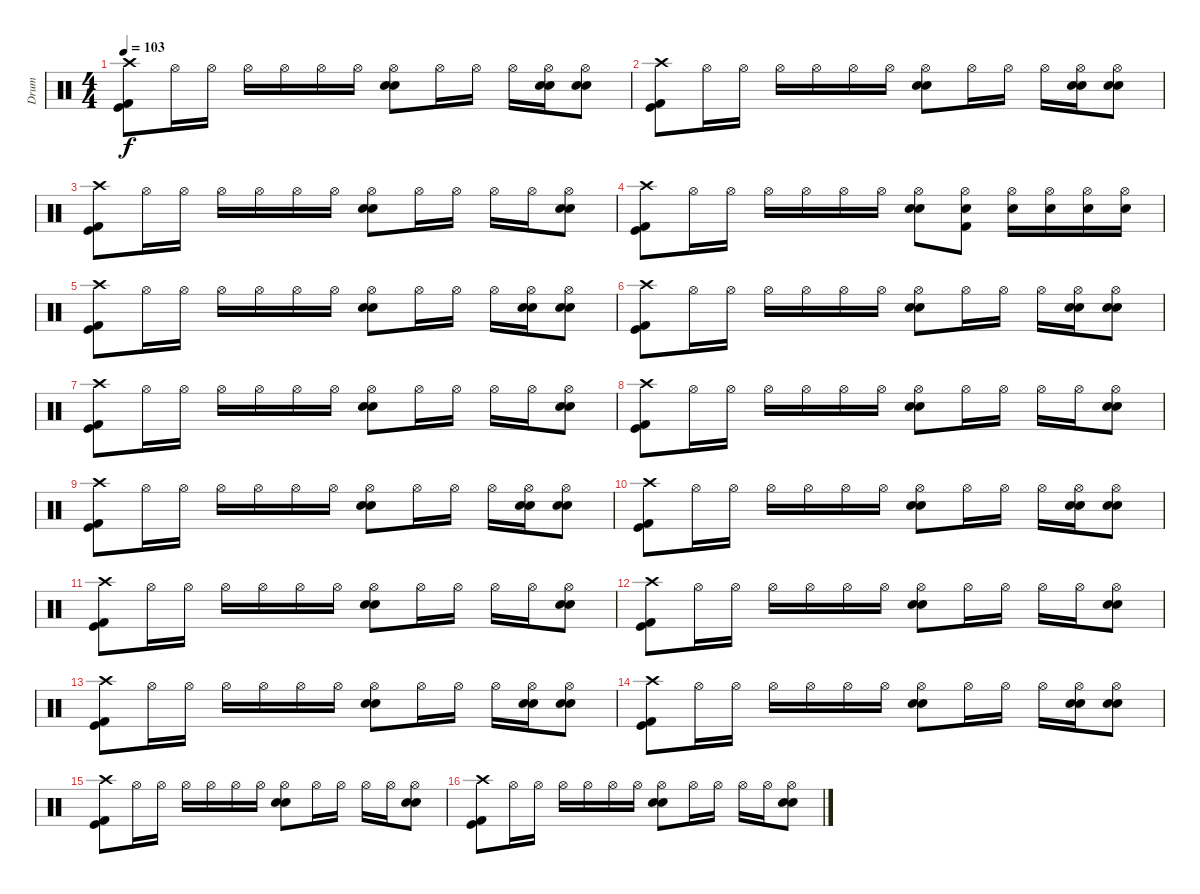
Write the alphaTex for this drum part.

\track ("Drum" "Drum") {instrument percussion}
\staff {score}
\articulation defaults
\ts (4 4)
\tempo 103
\clef neutral
\ks c
("Kick (hit)" "Kick (hit) 2" "Crash high (hit)").8{dy f} "Hi-Hat (open)".16 "Hi-Hat (open)".16 "Hi-Hat (open)".16 "Hi-Hat (open)".16 "Hi-Hat (open)".16 "Hi-Hat (open)".16 ("Hi-Hat (open)" "Electric Snare (hit)" "Snare (hit) 2").8 "Hi-Hat (open)".16 "Hi-Hat (open)".16 "Hi-Hat (open)".16 ("Hi-Hat (open)" "Electric Snare (hit)" "Snare (hit) 2").16 ("Hi-Hat (open)" "Electric Snare (hit)" "Snare (hit) 2").8 |
("Kick (hit)" "Kick (hit) 2" "Crash high (hit)").8 "Hi-Hat (open)".16 "Hi-Hat (open)".16 "Hi-Hat (open)".16 "Hi-Hat (open)".16 "Hi-Hat (open)".16 "Hi-Hat (open)".16 ("Hi-Hat (open)" "Electric Snare (hit)" "Snare (hit) 2").8 "Hi-Hat (open)".16 "Hi-Hat (open)".16 "Hi-Hat (open)".16 ("Hi-Hat (open)" "Electric Snare (hit)" "Snare (hit) 2").16 ("Hi-Hat (open)" "Electric Snare (hit)" "Snare (hit) 2").8 |
("Kick (hit)" "Kick (hit) 2" "Crash high (hit)").8 "Hi-Hat (open)".16 "Hi-Hat (open)".16 "Hi-Hat (open)".16 "Hi-Hat (open)".16 "Hi-Hat (open)".16 "Hi-Hat (open)".16 ("Hi-Hat (open)" "Electric Snare (hit)" "Snare (hit) 2").8 "Hi-Hat (open)".16 "Hi-Hat (open)".16 "Hi-Hat (open)".16 "Hi-Hat (open)".16 ("Hi-Hat (open)" "Electric Snare (hit)" "Snare (hit) 2").8 |
("Kick (hit)" "Kick (hit) 2" "Crash high (hit)").8 "Hi-Hat (open)".16 "Hi-Hat (open)".16 "Hi-Hat (open)".16 "Hi-Hat (open)".16 "Hi-Hat (open)".16 "Hi-Hat (open)".16 ("Hi-Hat (open)" "Electric Snare (hit)" "Snare (hit) 2").8 ("Hi-Hat (open)" "Kick (hit) 2" "Snare (hit) 2").8 ("Hi-Hat (open)" "Snare (hit) 2").16 ("Hi-Hat (open)" "Snare (hit) 2").16 ("Hi-Hat (open)" "Snare (hit) 2").16 ("Hi-Hat (open)" "Snare (hit) 2").16 |
("Kick (hit)" "Kick (hit) 2" "Crash high (hit)").8 "Hi-Hat (open)".16 "Hi-Hat (open)".16 "Hi-Hat (open)".16 "Hi-Hat (open)".16 "Hi-Hat (open)".16 "Hi-Hat (open)".16 ("Hi-Hat (open)" "Electric Snare (hit)" "Snare (hit) 2").8 "Hi-Hat (open)".16 "Hi-Hat (open)".16 "Hi-Hat (open)".16 ("Hi-Hat (open)" "Electric Snare (hit)" "Snare (hit) 2").16 ("Hi-Hat (open)" "Electric Snare (hit)" "Snare (hit) 2").8 |
("Kick (hit)" "Kick (hit) 2" "Crash high (hit)").8 "Hi-Hat (open)".16 "Hi-Hat (open)".16 "Hi-Hat (open)".16 "Hi-Hat (open)".16 "Hi-Hat (open)".16 "Hi-Hat (open)".16 ("Hi-Hat (open)" "Electric Snare (hit)" "Snare (hit) 2").8 "Hi-Hat (open)".16 "Hi-Hat (open)".16 "Hi-Hat (open)".16 ("Hi-Hat (open)" "Electric Snare (hit)" "Snare (hit) 2").16 ("Hi-Hat (open)" "Electric Snare (hit)" "Snare (hit) 2").8 |
("Kick (hit)" "Kick (hit) 2" "Crash high (hit)").8 "Hi-Hat (open)".16 "Hi-Hat (open)".16 "Hi-Hat (open)".16 "Hi-Hat (open)".16 "Hi-Hat (open)".16 "Hi-Hat (open)".16 ("Hi-Hat (open)" "Electric Snare (hit)" "Snare (hit) 2").8 "Hi-Hat (open)".16 "Hi-Hat (open)".16 "Hi-Hat (open)".16 "Hi-Hat (open)".16 ("Hi-Hat (open)" "Electric Snare (hit)" "Snare (hit) 2").8 |
("Kick (hit)" "Kick (hit) 2" "Crash high (hit)").8 "Hi-Hat (open)".16 "Hi-Hat (open)".16 "Hi-Hat (open)".16 "Hi-Hat (open)".16 "Hi-Hat (open)".16 "Hi-Hat (open)".16 ("Hi-Hat (open)" "Electric Snare (hit)" "Snare (hit) 2").8 "Hi-Hat (open)".16 "Hi-Hat (open)".16 "Hi-Hat (open)".16 "Hi-Hat (open)".16 ("Hi-Hat (open)" "Electric Snare (hit)" "Snare (hit) 2").8 |
("Kick (hit)" "Kick (hit) 2" "Crash high (hit)").8 "Hi-Hat (open)".16 "Hi-Hat (open)".16 "Hi-Hat (open)".16 "Hi-Hat (open)".16 "Hi-Hat (open)".16 "Hi-Hat (open)".16 ("Hi-Hat (open)" "Electric Snare (hit)" "Snare (hit) 2").8 "Hi-Hat (open)".16 "Hi-Hat (open)".16 "Hi-Hat (open)".16 ("Hi-Hat (open)" "Electric Snare (hit)" "Snare (hit) 2").16 ("Hi-Hat (open)" "Electric Snare (hit)" "Snare (hit) 2").8 |
("Kick (hit)" "Kick (hit) 2" "Crash high (hit)").8 "Hi-Hat (open)".16 "Hi-Hat (open)".16 "Hi-Hat (open)".16 "Hi-Hat (open)".16 "Hi-Hat (open)".16 "Hi-Hat (open)".16 ("Hi-Hat (open)" "Electric Snare (hit)" "Snare (hit) 2").8 "Hi-Hat (open)".16 "Hi-Hat (open)".16 "Hi-Hat (open)".16 ("Hi-Hat (open)" "Electric Snare (hit)" "Snare (hit) 2").16 ("Hi-Hat (open)" "Electric Snare (hit)" "Snare (hit) 2").8 |
("Kick (hit)" "Kick (hit) 2" "Crash high (hit)").8 "Hi-Hat (open)".16 "Hi-Hat (open)".16 "Hi-Hat (open)".16 "Hi-Hat (open)".16 "Hi-Hat (open)".16 "Hi-Hat (open)".16 ("Hi-Hat (open)" "Electric Snare (hit)" "Snare (hit) 2").8 "Hi-Hat (open)".16 "Hi-Hat (open)".16 "Hi-Hat (open)".16 "Hi-Hat (open)".16 ("Hi-Hat (open)" "Electric Snare (hit)" "Snare (hit) 2").8 |
("Kick (hit)" "Kick (hit) 2" "Crash high (hit)").8 "Hi-Hat (open)".16 "Hi-Hat (open)".16 "Hi-Hat (open)".16 "Hi-Hat (open)".16 "Hi-Hat (open)".16 "Hi-Hat (open)".16 ("Hi-Hat (open)" "Electric Snare (hit)" "Snare (hit) 2").8 "Hi-Hat (open)".16 "Hi-Hat (open)".16 "Hi-Hat (open)".16 "Hi-Hat (open)".16 ("Hi-Hat (open)" "Electric Snare (hit)" "Snare (hit) 2").8 |
("Kick (hit)" "Kick (hit) 2" "Crash high (hit)").8 "Hi-Hat (open)".16 "Hi-Hat (open)".16 "Hi-Hat (open)".16 "Hi-Hat (open)".16 "Hi-Hat (open)".16 "Hi-Hat (open)".16 ("Hi-Hat (open)" "Electric Snare (hit)" "Snare (hit) 2").8 "Hi-Hat (open)".16 "Hi-Hat (open)".16 "Hi-Hat (open)".16 ("Hi-Hat (open)" "Electric Snare (hit)" "Snare (hit) 2").16 ("Hi-Hat (open)" "Electric Snare (hit)" "Snare (hit) 2").8 |
("Kick (hit)" "Kick (hit) 2" "Crash high (hit)").8 "Hi-Hat (open)".16 "Hi-Hat (open)".16 "Hi-Hat (open)".16 "Hi-Hat (open)".16 "Hi-Hat (open)".16 "Hi-Hat (open)".16 ("Hi-Hat (open)" "Electric Snare (hit)" "Snare (hit) 2").8 "Hi-Hat (open)".16 "Hi-Hat (open)".16 "Hi-Hat (open)".16 ("Hi-Hat (open)" "Electric Snare (hit)" "Snare (hit) 2").16 ("Hi-Hat (open)" "Electric Snare (hit)" "Snare (hit) 2").8 |
("Kick (hit)" "Kick (hit) 2" "Crash high (hit)").8 "Hi-Hat (open)".16 "Hi-Hat (open)".16 "Hi-Hat (open)".16 "Hi-Hat (open)".16 "Hi-Hat (open)".16 "Hi-Hat (open)".16 ("Hi-Hat (open)" "Electric Snare (hit)" "Snare (hit) 2").8 "Hi-Hat (open)".16 "Hi-Hat (open)".16 "Hi-Hat (open)".16 "Hi-Hat (open)".16 ("Hi-Hat (open)" "Electric Snare (hit)" "Snare (hit) 2").8 |
("Kick (hit)" "Kick (hit) 2" "Crash high (hit)").8 "Hi-Hat (open)".16 "Hi-Hat (open)".16 "Hi-Hat (open)".16 "Hi-Hat (open)".16 "Hi-Hat (open)".16 "Hi-Hat (open)".16 ("Hi-Hat (open)" "Electric Snare (hit)" "Snare (hit) 2").8 "Hi-Hat (open)".16 "Hi-Hat (open)".16 "Hi-Hat (open)".16 "Hi-Hat (open)".16 ("Hi-Hat (open)" "Electric Snare (hit)" "Snare (hit) 2").8
